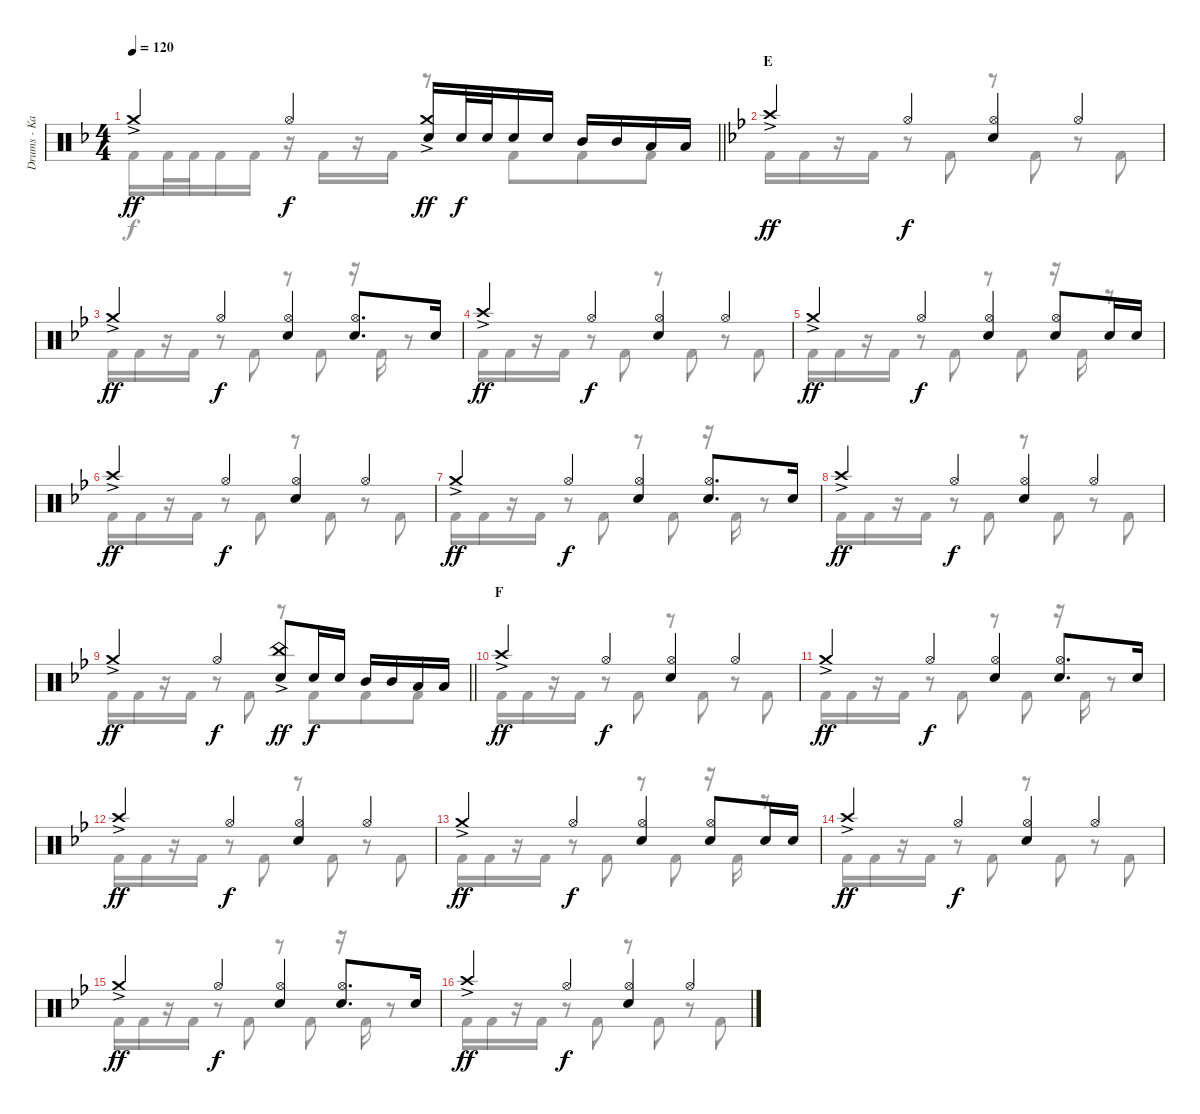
\track ("Drums - Kai" "Drums - Ka") {instrument percussion}
\staff {score}
\articulation defaults
\voice
\ts (4 4)
\tempo 120
\clef neutral
\barLineRight lightlight
\ks f "Crash medium (hit)"{ac}.4{dy ff} "Hi-Hat (open)".4{dy f}
("Crash medium (hit)"{ac} "Snare (hit) 2").16{dy ff} "Snare (hit) 2".32{dy f} "Snare (hit) 2".32 "Snare (hit) 2".16 "Snare (hit) 2".16 "Mid Tom (hit)".16 "Mid Tom (hit)".16 "Low Tom (hit)".16 "Low Tom (hit)".16 |
\section ("" "E")
\ks bb "Crash high (hit)"{ac}.4{dy ff} "Hi-Hat (open)".4{dy f}
("Hi-Hat (open)" "Snare (hit) 2").4 "Hi-Hat (open)".4 |
"Crash medium (hit)"{ac}.4{dy ff} "Hi-Hat (open)".4{dy f} ("Hi-Hat (open)" "Snare (hit) 2").4 ("Hi-Hat (open)" "Snare (hit) 2").8{d} "Snare (hit) 2".16 |
"Crash high (hit)"{ac}.4{dy ff} "Hi-Hat (open)".4{dy f} ("Hi-Hat (open)" "Snare (hit) 2").4 "Hi-Hat (open)".4 |
"Crash medium (hit)"{ac}.4{dy ff} "Hi-Hat (open)".4{dy f} ("Hi-Hat (open)" "Snare (hit) 2").4 ("Hi-Hat (open)" "Snare (hit) 2").8 "Snare (hit) 2".16 "Snare (hit) 2".16 |
"Crash high (hit)"{ac}.4{dy ff} "Hi-Hat (open)".4{dy f} ("Hi-Hat (open)" "Snare (hit) 2").4 "Hi-Hat (open)".4 |
"Crash medium (hit)"{ac}.4{dy ff} "Hi-Hat (open)".4{dy f} ("Hi-Hat (open)" "Snare (hit) 2").4 ("Hi-Hat (open)" "Snare (hit) 2").8{d} "Snare (hit) 2".16 |
"Crash high (hit)"{ac}.4{dy ff} "Hi-Hat (open)".4{dy f} ("Hi-Hat (open)" "Snare (hit) 2").4 "Hi-Hat (open)".4 |
\barLineRight lightlight "Crash medium (hit)"{ac}.4{dy ff} "Hi-Hat (open)".4{dy f}
("China (hit)"{ac} "Snare (hit) 2").8{dy ff} "Snare (hit) 2".16{dy f} "Snare (hit) 2".16 "Mid Tom (hit)".16 "Mid Tom (hit)".16 "Low Tom (hit)".16 "Low Tom (hit)".16 |
\section ("" "F")
"Crash high (hit)"{ac}.4{dy ff} "Hi-Hat (open)".4{dy f} ("Hi-Hat (open)" "Snare (hit) 2").4 "Hi-Hat (open)".4 |
"Crash medium (hit)"{ac}.4{dy ff} "Hi-Hat (open)".4{dy f} ("Hi-Hat (open)" "Snare (hit) 2").4 ("Hi-Hat (open)" "Snare (hit) 2").8{d} "Snare (hit) 2".16 |
"Crash high (hit)"{ac}.4{dy ff} "Hi-Hat (open)".4{dy f} ("Hi-Hat (open)" "Snare (hit) 2").4 "Hi-Hat (open)".4 |
"Crash medium (hit)"{ac}.4{dy ff} "Hi-Hat (open)".4{dy f} ("Hi-Hat (open)" "Snare (hit) 2").4 ("Hi-Hat (open)" "Snare (hit) 2").8 "Snare (hit) 2".16 "Snare (hit) 2".16 |
"Crash high (hit)"{ac}.4{dy ff} "Hi-Hat (open)".4{dy f} ("Hi-Hat (open)" "Snare (hit) 2").4 "Hi-Hat (open)".4 |
"Crash medium (hit)"{ac}.4{dy ff} "Hi-Hat (open)".4{dy f} ("Hi-Hat (open)" "Snare (hit) 2").4 ("Hi-Hat (open)" "Snare (hit) 2").8{d} "Snare (hit) 2".16 |
"Crash high (hit)"{ac}.4{dy ff} "Hi-Hat (open)".4{dy f} ("Hi-Hat (open)" "Snare (hit) 2").4 "Hi-Hat (open)".4
\voice
\clef neutral
\ottava regular
\simile none
\barLineRight lightlight
\ks f "Kick (hit) 2".16{dy f} "Kick (hit) 2".32 "Kick (hit) 2".32 "Kick (hit) 2".16 "Kick (hit) 2".16
r.16 "Kick (hit) 2".16 r.16 "Kick (hit) 2".16 r.8 "Kick (hit) 2".8{beam merge} "Kick (hit) 2".8 "Kick (hit) 2".8 |
\ks bb "Kick (hit) 2".16 "Kick (hit) 2".16
r.16 "Kick (hit) 2".16 r.8 "Kick (hit) 2".8 r.8 "Kick (hit) 2".8 r.8 "Kick (hit) 2".8 |
"Kick (hit) 2".16 "Kick (hit) 2".16 r.16 "Kick (hit) 2".16 r.8 "Kick (hit) 2".8 r.8 "Kick (hit) 2".8 r.16 "Kick (hit) 2".16 r.8 |
"Kick (hit) 2".16 "Kick (hit) 2".16 r.16 "Kick (hit) 2".16 r.8 "Kick (hit) 2".8 r.8 "Kick (hit) 2".8 r.8 "Kick (hit) 2".8 |
"Kick (hit) 2".16 "Kick (hit) 2".16 r.16 "Kick (hit) 2".16 r.8 "Kick (hit) 2".8 r.8 "Kick (hit) 2".8 r.16 "Kick (hit) 2".16 r.8 |
"Kick (hit) 2".16 "Kick (hit) 2".16 r.16 "Kick (hit) 2".16 r.8 "Kick (hit) 2".8 r.8 "Kick (hit) 2".8 r.8 "Kick (hit) 2".8 |
"Kick (hit) 2".16 "Kick (hit) 2".16 r.16 "Kick (hit) 2".16 r.8 "Kick (hit) 2".8 r.8 "Kick (hit) 2".8 r.16 "Kick (hit) 2".16 r.8 |
"Kick (hit) 2".16 "Kick (hit) 2".16 r.16 "Kick (hit) 2".16 r.8 "Kick (hit) 2".8 r.8 "Kick (hit) 2".8 r.8 "Kick (hit) 2".8 |
\barLineRight lightlight "Kick (hit) 2".16 "Kick (hit) 2".16
r.16 "Kick (hit) 2".16 r.8 "Kick (hit) 2".8 r.8 "Kick (hit) 2".8{beam merge} "Kick (hit) 2".8 "Kick (hit) 2".8 |
"Kick (hit) 2".16 "Kick (hit) 2".16 r.16 "Kick (hit) 2".16 r.8 "Kick (hit) 2".8 r.8 "Kick (hit) 2".8 r.8 "Kick (hit) 2".8 |
"Kick (hit) 2".16 "Kick (hit) 2".16 r.16 "Kick (hit) 2".16 r.8 "Kick (hit) 2".8 r.8 "Kick (hit) 2".8 r.16 "Kick (hit) 2".16 r.8 |
"Kick (hit) 2".16 "Kick (hit) 2".16 r.16 "Kick (hit) 2".16 r.8 "Kick (hit) 2".8 r.8 "Kick (hit) 2".8 r.8 "Kick (hit) 2".8 |
"Kick (hit) 2".16 "Kick (hit) 2".16 r.16 "Kick (hit) 2".16 r.8 "Kick (hit) 2".8 r.8 "Kick (hit) 2".8 r.16 "Kick (hit) 2".16 r.8 |
"Kick (hit) 2".16 "Kick (hit) 2".16 r.16 "Kick (hit) 2".16 r.8 "Kick (hit) 2".8 r.8 "Kick (hit) 2".8 r.8 "Kick (hit) 2".8 |
"Kick (hit) 2".16 "Kick (hit) 2".16 r.16 "Kick (hit) 2".16 r.8 "Kick (hit) 2".8 r.8 "Kick (hit) 2".8 r.16 "Kick (hit) 2".16 r.8 |
"Kick (hit) 2".16 "Kick (hit) 2".16 r.16 "Kick (hit) 2".16 r.8 "Kick (hit) 2".8 r.8 "Kick (hit) 2".8 r.8 "Kick (hit) 2".8
